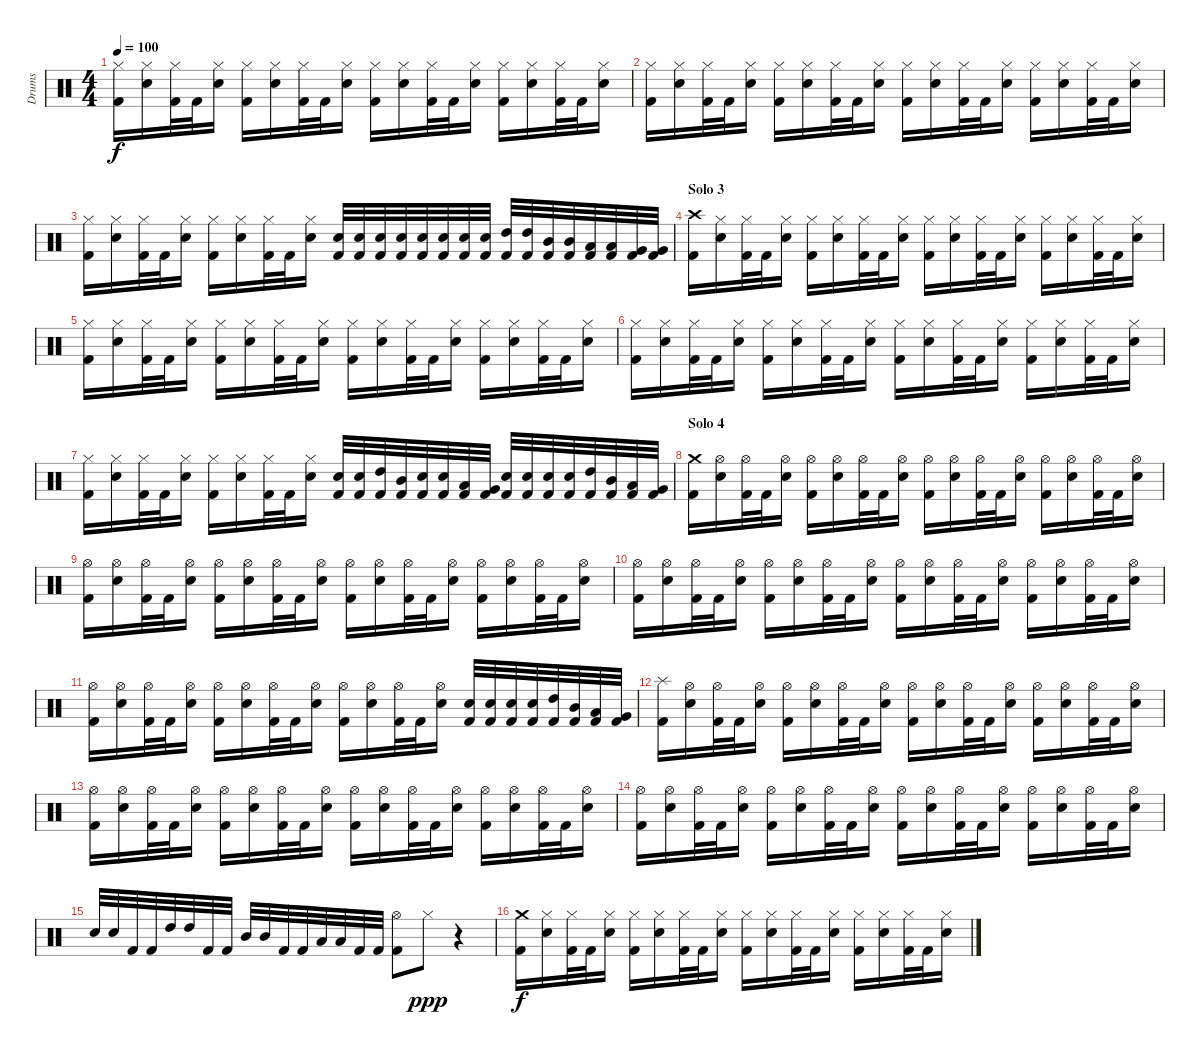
\track ("Drums" "Drums") {instrument percussion}
\staff {score}
\articulation defaults
\ts (4 4)
\tempo 100
\clef neutral
\ks c
("Kick (hit) 2" "Hi-Hat (closed)").16{dy f} ("Electric Snare (hit)" "Hi-Hat (closed)").16 ("Kick (hit) 2" "Hi-Hat (closed)").32 "Kick (hit) 2".32 ("Electric Snare (hit)" "Hi-Hat (closed)").16 ("Kick (hit) 2" "Hi-Hat (closed)").16 ("Electric Snare (hit)" "Hi-Hat (closed)").16 ("Kick (hit) 2" "Hi-Hat (closed)").32 "Kick (hit) 2".32 ("Electric Snare (hit)" "Hi-Hat (closed)").16 ("Kick (hit) 2" "Hi-Hat (closed)").16 ("Electric Snare (hit)" "Hi-Hat (closed)").16 ("Kick (hit) 2" "Hi-Hat (closed)").32 "Kick (hit) 2".32 ("Electric Snare (hit)" "Hi-Hat (closed)").16 ("Kick (hit) 2" "Hi-Hat (closed)").16 ("Electric Snare (hit)" "Hi-Hat (closed)").16 ("Kick (hit) 2" "Hi-Hat (closed)").32 "Kick (hit) 2".32 ("Electric Snare (hit)" "Hi-Hat (closed)").16 |
("Kick (hit) 2" "Hi-Hat (closed)").16 ("Electric Snare (hit)" "Hi-Hat (closed)").16 ("Kick (hit) 2" "Hi-Hat (closed)").32 "Kick (hit) 2".32 ("Electric Snare (hit)" "Hi-Hat (closed)").16 ("Kick (hit) 2" "Hi-Hat (closed)").16 ("Electric Snare (hit)" "Hi-Hat (closed)").16 ("Kick (hit) 2" "Hi-Hat (closed)").32 "Kick (hit) 2".32 ("Electric Snare (hit)" "Hi-Hat (closed)").16 ("Kick (hit) 2" "Hi-Hat (closed)").16 ("Electric Snare (hit)" "Hi-Hat (closed)").16 ("Kick (hit) 2" "Hi-Hat (closed)").32 "Kick (hit) 2".32 ("Electric Snare (hit)" "Hi-Hat (closed)").16 ("Kick (hit) 2" "Hi-Hat (closed)").16 ("Electric Snare (hit)" "Hi-Hat (closed)").16 ("Kick (hit) 2" "Hi-Hat (closed)").32 "Kick (hit) 2".32 ("Electric Snare (hit)" "Hi-Hat (closed)").16 |
("Kick (hit) 2" "Hi-Hat (closed)").16 ("Electric Snare (hit)" "Hi-Hat (closed)").16 ("Kick (hit) 2" "Hi-Hat (closed)").32 "Kick (hit) 2".32 ("Electric Snare (hit)" "Hi-Hat (closed)").16 ("Kick (hit) 2" "Hi-Hat (closed)").16 ("Electric Snare (hit)" "Hi-Hat (closed)").16 ("Kick (hit) 2" "Hi-Hat (closed)").32 "Kick (hit) 2".32 ("Electric Snare (hit)" "Hi-Hat (closed)").16 ("Kick (hit) 2" "Electric Snare (hit)").32 ("Kick (hit) 2" "Electric Snare (hit)").32 ("Kick (hit) 2" "Electric Snare (hit)").32 ("Kick (hit) 2" "Electric Snare (hit)").32 ("Kick (hit) 2" "Electric Snare (hit)").32 ("Kick (hit) 2" "Electric Snare (hit)").32 ("Kick (hit) 2" "Electric Snare (hit)").32 ("Kick (hit) 2" "Electric Snare (hit)").32 ("Kick (hit) 2" "High Tom (hit)").32 ("Kick (hit) 2" "High Tom (hit)").32 ("Kick (hit) 2" "Mid Tom (hit)").32 ("Kick (hit) 2" "Mid Tom (hit)").32 ("Kick (hit) 2" "Low Tom (hit)").32 ("Kick (hit) 2" "Low Tom (hit)").32 ("Kick (hit) 2" "Very Low Tom (hit)").32 ("Kick (hit) 2" "Very Low Tom (hit)").32 |
\section ("" "Solo 3")
("Kick (hit) 2" "Crash high (hit)").16 ("Electric Snare (hit)" "Hi-Hat (closed)").16 ("Kick (hit) 2" "Hi-Hat (closed)").32 "Kick (hit) 2".32 ("Electric Snare (hit)" "Hi-Hat (closed)").16 ("Kick (hit) 2" "Hi-Hat (closed)").16 ("Electric Snare (hit)" "Hi-Hat (closed)").16 ("Kick (hit) 2" "Hi-Hat (closed)").32 "Kick (hit) 2".32 ("Electric Snare (hit)" "Hi-Hat (closed)").16 ("Kick (hit) 2" "Hi-Hat (closed)").16 ("Electric Snare (hit)" "Hi-Hat (closed)").16 ("Kick (hit) 2" "Hi-Hat (closed)").32 "Kick (hit) 2".32 ("Electric Snare (hit)" "Hi-Hat (closed)").16 ("Kick (hit) 2" "Hi-Hat (closed)").16 ("Electric Snare (hit)" "Hi-Hat (closed)").16 ("Kick (hit) 2" "Hi-Hat (closed)").32 "Kick (hit) 2".32 ("Electric Snare (hit)" "Hi-Hat (closed)").16 |
("Kick (hit) 2" "Hi-Hat (closed)").16 ("Electric Snare (hit)" "Hi-Hat (closed)").16 ("Kick (hit) 2" "Hi-Hat (closed)").32 "Kick (hit) 2".32 ("Electric Snare (hit)" "Hi-Hat (closed)").16 ("Kick (hit) 2" "Hi-Hat (closed)").16 ("Electric Snare (hit)" "Hi-Hat (closed)").16 ("Kick (hit) 2" "Hi-Hat (closed)").32 "Kick (hit) 2".32 ("Electric Snare (hit)" "Hi-Hat (closed)").16 ("Kick (hit) 2" "Hi-Hat (closed)").16 ("Electric Snare (hit)" "Hi-Hat (closed)").16 ("Kick (hit) 2" "Hi-Hat (closed)").32 "Kick (hit) 2".32 ("Electric Snare (hit)" "Hi-Hat (closed)").16 ("Kick (hit) 2" "Hi-Hat (closed)").16 ("Electric Snare (hit)" "Hi-Hat (closed)").16 ("Kick (hit) 2" "Hi-Hat (closed)").32 "Kick (hit) 2".32 ("Electric Snare (hit)" "Hi-Hat (closed)").16 |
("Kick (hit) 2" "Hi-Hat (closed)").16 ("Electric Snare (hit)" "Hi-Hat (closed)").16 ("Kick (hit) 2" "Hi-Hat (closed)").32 "Kick (hit) 2".32 ("Electric Snare (hit)" "Hi-Hat (closed)").16 ("Kick (hit) 2" "Hi-Hat (closed)").16 ("Electric Snare (hit)" "Hi-Hat (closed)").16 ("Kick (hit) 2" "Hi-Hat (closed)").32 "Kick (hit) 2".32 ("Electric Snare (hit)" "Hi-Hat (closed)").16 ("Kick (hit) 2" "Hi-Hat (closed)").16 ("Electric Snare (hit)" "Hi-Hat (closed)").16 ("Kick (hit) 2" "Hi-Hat (closed)").32 "Kick (hit) 2".32 ("Electric Snare (hit)" "Hi-Hat (closed)").16 ("Kick (hit) 2" "Hi-Hat (closed)").16 ("Electric Snare (hit)" "Hi-Hat (closed)").16 ("Kick (hit) 2" "Hi-Hat (closed)").32 "Kick (hit) 2".32 ("Electric Snare (hit)" "Hi-Hat (closed)").16 |
("Kick (hit) 2" "Hi-Hat (closed)").16 ("Electric Snare (hit)" "Hi-Hat (closed)").16 ("Kick (hit) 2" "Hi-Hat (closed)").32 "Kick (hit) 2".32 ("Electric Snare (hit)" "Hi-Hat (closed)").16 ("Kick (hit) 2" "Hi-Hat (closed)").16 ("Electric Snare (hit)" "Hi-Hat (closed)").16 ("Kick (hit) 2" "Hi-Hat (closed)").32 "Kick (hit) 2".32 ("Electric Snare (hit)" "Hi-Hat (closed)").16 ("Kick (hit) 2" "Electric Snare (hit)").32 ("Kick (hit) 2" "Electric Snare (hit)").32 ("Kick (hit) 2" "High Tom (hit)").32 ("Kick (hit) 2" "Mid Tom (hit)").32 ("Kick (hit) 2" "Electric Snare (hit)").32 ("Kick (hit) 2" "Electric Snare (hit)").32 ("Kick (hit) 2" "Low Tom (hit)").32 ("Kick (hit) 2" "Very Low Tom (hit)").32 ("Kick (hit) 2" "Electric Snare (hit)").32 ("Kick (hit) 2" "Electric Snare (hit)").32 ("Kick (hit) 2" "Electric Snare (hit)").32 ("Kick (hit) 2" "Electric Snare (hit)").32 ("Kick (hit) 2" "High Tom (hit)").32 ("Kick (hit) 2" "Mid Tom (hit)").32 ("Kick (hit) 2" "Low Tom (hit)").32 ("Kick (hit) 2" "Very Low Tom (hit)").32 |
\section ("" "Solo 4")
("Kick (hit) 2" "Crash medium (hit)").16 ("Electric Snare (hit)" "Hi-Hat (open)").16 ("Kick (hit) 2" "Hi-Hat (open)").32 "Kick (hit) 2".32 ("Electric Snare (hit)" "Hi-Hat (open)").16 ("Kick (hit) 2" "Hi-Hat (open)").16 ("Electric Snare (hit)" "Hi-Hat (open)").16 ("Kick (hit) 2" "Hi-Hat (open)").32 "Kick (hit) 2".32 ("Electric Snare (hit)" "Hi-Hat (open)").16 ("Kick (hit) 2" "Hi-Hat (open)").16 ("Electric Snare (hit)" "Hi-Hat (open)").16 ("Kick (hit) 2" "Hi-Hat (open)").32 "Kick (hit) 2".32 ("Electric Snare (hit)" "Hi-Hat (open)").16 ("Kick (hit) 2" "Hi-Hat (open)").16 ("Electric Snare (hit)" "Hi-Hat (open)").16 ("Kick (hit) 2" "Hi-Hat (open)").32 "Kick (hit) 2".32 ("Electric Snare (hit)" "Hi-Hat (open)").16 |
("Kick (hit) 2" "Hi-Hat (open)").16 ("Electric Snare (hit)" "Hi-Hat (open)").16 ("Kick (hit) 2" "Hi-Hat (open)").32 "Kick (hit) 2".32 ("Electric Snare (hit)" "Hi-Hat (open)").16 ("Kick (hit) 2" "Hi-Hat (open)").16 ("Electric Snare (hit)" "Hi-Hat (open)").16 ("Kick (hit) 2" "Hi-Hat (open)").32 "Kick (hit) 2".32 ("Electric Snare (hit)" "Hi-Hat (open)").16 ("Kick (hit) 2" "Hi-Hat (open)").16 ("Electric Snare (hit)" "Hi-Hat (open)").16 ("Kick (hit) 2" "Hi-Hat (open)").32 "Kick (hit) 2".32 ("Electric Snare (hit)" "Hi-Hat (open)").16 ("Kick (hit) 2" "Hi-Hat (open)").16 ("Electric Snare (hit)" "Hi-Hat (open)").16 ("Kick (hit) 2" "Hi-Hat (open)").32 "Kick (hit) 2".32 ("Electric Snare (hit)" "Hi-Hat (open)").16 |
("Kick (hit) 2" "Hi-Hat (open)").16 ("Electric Snare (hit)" "Hi-Hat (open)").16 ("Kick (hit) 2" "Hi-Hat (open)").32 "Kick (hit) 2".32 ("Electric Snare (hit)" "Hi-Hat (open)").16 ("Kick (hit) 2" "Hi-Hat (open)").16 ("Electric Snare (hit)" "Hi-Hat (open)").16 ("Kick (hit) 2" "Hi-Hat (open)").32 "Kick (hit) 2".32 ("Electric Snare (hit)" "Hi-Hat (open)").16 ("Kick (hit) 2" "Hi-Hat (open)").16 ("Electric Snare (hit)" "Hi-Hat (open)").16 ("Kick (hit) 2" "Hi-Hat (open)").32 "Kick (hit) 2".32 ("Electric Snare (hit)" "Hi-Hat (open)").16 ("Kick (hit) 2" "Hi-Hat (open)").16 ("Electric Snare (hit)" "Hi-Hat (open)").16 ("Kick (hit) 2" "Hi-Hat (open)").32 "Kick (hit) 2".32 ("Electric Snare (hit)" "Hi-Hat (open)").16 |
("Kick (hit) 2" "Hi-Hat (open)").16 ("Electric Snare (hit)" "Hi-Hat (open)").16 ("Kick (hit) 2" "Hi-Hat (open)").32 "Kick (hit) 2".32 ("Electric Snare (hit)" "Hi-Hat (open)").16 ("Kick (hit) 2" "Hi-Hat (open)").16 ("Electric Snare (hit)" "Hi-Hat (open)").16 ("Kick (hit) 2" "Hi-Hat (open)").32 "Kick (hit) 2".32 ("Electric Snare (hit)" "Hi-Hat (open)").16 ("Kick (hit) 2" "Hi-Hat (open)").16 ("Electric Snare (hit)" "Hi-Hat (open)").16 ("Kick (hit) 2" "Hi-Hat (open)").32 "Kick (hit) 2".32 ("Electric Snare (hit)" "Hi-Hat (open)").16 ("Kick (hit) 2" "Electric Snare (hit)").32 ("Kick (hit) 2" "Electric Snare (hit)").32 ("Kick (hit) 2" "Electric Snare (hit)").32 ("Kick (hit) 2" "Electric Snare (hit)").32 ("Kick (hit) 2" "High Tom (hit)").32 ("Kick (hit) 2" "Mid Tom (hit)").32 ("Kick (hit) 2" "Low Tom (hit)").32 ("Kick (hit) 2" "Very Low Tom (hit)").32 |
("Kick (hit) 2" "Splash (hit)").16 ("Electric Snare (hit)" "Hi-Hat (open)").16 ("Kick (hit) 2" "Hi-Hat (open)").32 "Kick (hit) 2".32 ("Electric Snare (hit)" "Hi-Hat (open)").16 ("Kick (hit) 2" "Hi-Hat (open)").16 ("Electric Snare (hit)" "Hi-Hat (open)").16 ("Kick (hit) 2" "Hi-Hat (open)").32 "Kick (hit) 2".32 ("Electric Snare (hit)" "Hi-Hat (open)").16 ("Kick (hit) 2" "Hi-Hat (open)").16 ("Electric Snare (hit)" "Hi-Hat (open)").16 ("Kick (hit) 2" "Hi-Hat (open)").32 "Kick (hit) 2".32 ("Electric Snare (hit)" "Hi-Hat (open)").16 ("Kick (hit) 2" "Hi-Hat (open)").16 ("Electric Snare (hit)" "Hi-Hat (open)").16 ("Kick (hit) 2" "Hi-Hat (open)").32 "Kick (hit) 2".32 ("Electric Snare (hit)" "Hi-Hat (open)").16 |
("Kick (hit) 2" "Hi-Hat (open)").16 ("Electric Snare (hit)" "Hi-Hat (open)").16 ("Kick (hit) 2" "Hi-Hat (open)").32 "Kick (hit) 2".32 ("Electric Snare (hit)" "Hi-Hat (open)").16 ("Kick (hit) 2" "Hi-Hat (open)").16 ("Electric Snare (hit)" "Hi-Hat (open)").16 ("Kick (hit) 2" "Hi-Hat (open)").32 "Kick (hit) 2".32 ("Electric Snare (hit)" "Hi-Hat (open)").16 ("Kick (hit) 2" "Hi-Hat (open)").16 ("Electric Snare (hit)" "Hi-Hat (open)").16 ("Kick (hit) 2" "Hi-Hat (open)").32 "Kick (hit) 2".32 ("Electric Snare (hit)" "Hi-Hat (open)").16 ("Kick (hit) 2" "Hi-Hat (open)").16 ("Electric Snare (hit)" "Hi-Hat (open)").16 ("Kick (hit) 2" "Hi-Hat (open)").32 "Kick (hit) 2".32 ("Electric Snare (hit)" "Hi-Hat (open)").16 |
("Kick (hit) 2" "Hi-Hat (open)").16 ("Electric Snare (hit)" "Hi-Hat (open)").16 ("Kick (hit) 2" "Hi-Hat (open)").32 "Kick (hit) 2".32 ("Electric Snare (hit)" "Hi-Hat (open)").16 ("Kick (hit) 2" "Hi-Hat (open)").16 ("Electric Snare (hit)" "Hi-Hat (open)").16 ("Kick (hit) 2" "Hi-Hat (open)").32 "Kick (hit) 2".32 ("Electric Snare (hit)" "Hi-Hat (open)").16 ("Kick (hit) 2" "Hi-Hat (open)").16 ("Electric Snare (hit)" "Hi-Hat (open)").16 ("Kick (hit) 2" "Hi-Hat (open)").32 "Kick (hit) 2".32 ("Electric Snare (hit)" "Hi-Hat (open)").16 ("Kick (hit) 2" "Hi-Hat (open)").16 ("Electric Snare (hit)" "Hi-Hat (open)").16 ("Kick (hit) 2" "Hi-Hat (open)").32 "Kick (hit) 2".32 ("Electric Snare (hit)" "Hi-Hat (open)").16 |
\section ("" "")
"Electric Snare (hit)".32 "Electric Snare (hit)".32 "Kick (hit) 2".32 "Kick (hit) 2".32 "High Tom (hit)".32 "High Tom (hit)".32 "Kick (hit) 2".32 "Kick (hit) 2".32 "Mid Tom (hit)".32 "Mid Tom (hit)".32 "Kick (hit) 2".32 "Kick (hit) 2".32 "Low Tom (hit)".32 "Low Tom (hit)".32 "Kick (hit) 2".32 "Kick (hit) 2".32 ("Kick (hit) 2" "Hi-Hat (open)").8 "Hi-Hat (closed)".8{dy ppp} r.4 |
("Kick (hit) 2" "Crash medium (hit)").16{dy f} ("Electric Snare (hit)" "Hi-Hat (closed)").16 ("Kick (hit) 2" "Hi-Hat (closed)").32 "Kick (hit) 2".32 ("Electric Snare (hit)" "Hi-Hat (closed)").16 ("Kick (hit) 2" "Hi-Hat (closed)").16 ("Electric Snare (hit)" "Hi-Hat (closed)").16 ("Kick (hit) 2" "Hi-Hat (closed)").32 "Kick (hit) 2".32 ("Electric Snare (hit)" "Hi-Hat (closed)").16 ("Kick (hit) 2" "Hi-Hat (closed)").16 ("Electric Snare (hit)" "Hi-Hat (closed)").16 ("Kick (hit) 2" "Hi-Hat (closed)").32 "Kick (hit) 2".32 ("Electric Snare (hit)" "Hi-Hat (closed)").16 ("Kick (hit) 2" "Hi-Hat (closed)").16 ("Electric Snare (hit)" "Hi-Hat (closed)").16 ("Kick (hit) 2" "Hi-Hat (closed)").32 "Kick (hit) 2".32 ("Electric Snare (hit)" "Hi-Hat (closed)").16
